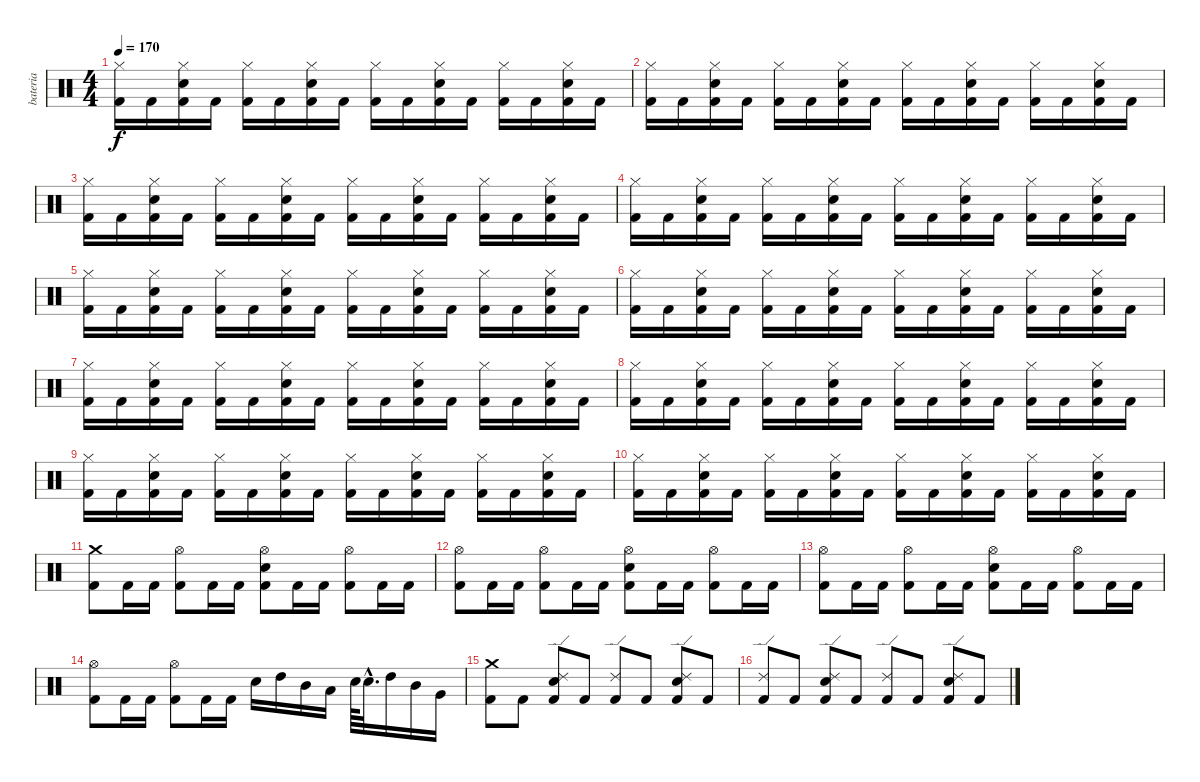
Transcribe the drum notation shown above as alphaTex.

\track ("bateria" "bateria") {instrument percussion}
\staff {score}
\articulation defaults
\ts (4 4)
\tempo 170
\clef neutral
\ks c
("Hi-Hat (closed)" "Kick (hit) 2").16{dy f} "Kick (hit) 2".16 ("Hi-Hat (closed)" "Snare (hit) 2" "Kick (hit) 2").16 "Kick (hit) 2".16 ("Hi-Hat (closed)" "Kick (hit) 2").16 "Kick (hit) 2".16 ("Hi-Hat (closed)" "Snare (hit) 2" "Kick (hit) 2").16 "Kick (hit) 2".16 ("Hi-Hat (closed)" "Kick (hit) 2").16 "Kick (hit) 2".16 ("Hi-Hat (closed)" "Snare (hit) 2" "Kick (hit) 2").16 "Kick (hit) 2".16 ("Hi-Hat (closed)" "Kick (hit) 2").16 "Kick (hit) 2".16 ("Hi-Hat (closed)" "Snare (hit) 2" "Kick (hit) 2").16 "Kick (hit) 2".16 |
("Hi-Hat (closed)" "Kick (hit) 2").16 "Kick (hit) 2".16 ("Hi-Hat (closed)" "Snare (hit) 2" "Kick (hit) 2").16 "Kick (hit) 2".16 ("Hi-Hat (closed)" "Kick (hit) 2").16 "Kick (hit) 2".16 ("Hi-Hat (closed)" "Snare (hit) 2" "Kick (hit) 2").16 "Kick (hit) 2".16 ("Hi-Hat (closed)" "Kick (hit) 2").16 "Kick (hit) 2".16 ("Hi-Hat (closed)" "Snare (hit) 2" "Kick (hit) 2").16 "Kick (hit) 2".16 ("Hi-Hat (closed)" "Kick (hit) 2").16 "Kick (hit) 2".16 ("Hi-Hat (closed)" "Snare (hit) 2" "Kick (hit) 2").16 "Kick (hit) 2".16 |
("Hi-Hat (closed)" "Kick (hit) 2").16 "Kick (hit) 2".16 ("Hi-Hat (closed)" "Snare (hit) 2" "Kick (hit) 2").16 "Kick (hit) 2".16 ("Hi-Hat (closed)" "Kick (hit) 2").16 "Kick (hit) 2".16 ("Hi-Hat (closed)" "Snare (hit) 2" "Kick (hit) 2").16 "Kick (hit) 2".16 ("Hi-Hat (closed)" "Kick (hit) 2").16 "Kick (hit) 2".16 ("Hi-Hat (closed)" "Snare (hit) 2" "Kick (hit) 2").16 "Kick (hit) 2".16 ("Hi-Hat (closed)" "Kick (hit) 2").16 "Kick (hit) 2".16 ("Hi-Hat (closed)" "Snare (hit) 2" "Kick (hit) 2").16 "Kick (hit) 2".16 |
("Hi-Hat (closed)" "Kick (hit) 2").16 "Kick (hit) 2".16 ("Hi-Hat (closed)" "Snare (hit) 2" "Kick (hit) 2").16 "Kick (hit) 2".16 ("Hi-Hat (closed)" "Kick (hit) 2").16 "Kick (hit) 2".16 ("Hi-Hat (closed)" "Snare (hit) 2" "Kick (hit) 2").16 "Kick (hit) 2".16 ("Hi-Hat (closed)" "Kick (hit) 2").16 "Kick (hit) 2".16 ("Hi-Hat (closed)" "Snare (hit) 2" "Kick (hit) 2").16 "Kick (hit) 2".16 ("Hi-Hat (closed)" "Kick (hit) 2").16 "Kick (hit) 2".16 ("Hi-Hat (closed)" "Snare (hit) 2" "Kick (hit) 2").16 "Kick (hit) 2".16 |
("Hi-Hat (closed)" "Kick (hit) 2").16 "Kick (hit) 2".16 ("Hi-Hat (closed)" "Snare (hit) 2" "Kick (hit) 2").16 "Kick (hit) 2".16 ("Hi-Hat (closed)" "Kick (hit) 2").16 "Kick (hit) 2".16 ("Hi-Hat (closed)" "Snare (hit) 2" "Kick (hit) 2").16 "Kick (hit) 2".16 ("Hi-Hat (closed)" "Kick (hit) 2").16 "Kick (hit) 2".16 ("Hi-Hat (closed)" "Snare (hit) 2" "Kick (hit) 2").16 "Kick (hit) 2".16 ("Hi-Hat (closed)" "Kick (hit) 2").16 "Kick (hit) 2".16 ("Hi-Hat (closed)" "Snare (hit) 2" "Kick (hit) 2").16 "Kick (hit) 2".16 |
("Hi-Hat (closed)" "Kick (hit) 2").16 "Kick (hit) 2".16 ("Hi-Hat (closed)" "Snare (hit) 2" "Kick (hit) 2").16 "Kick (hit) 2".16 ("Hi-Hat (closed)" "Kick (hit) 2").16 "Kick (hit) 2".16 ("Hi-Hat (closed)" "Snare (hit) 2" "Kick (hit) 2").16 "Kick (hit) 2".16 ("Hi-Hat (closed)" "Kick (hit) 2").16 "Kick (hit) 2".16 ("Hi-Hat (closed)" "Snare (hit) 2" "Kick (hit) 2").16 "Kick (hit) 2".16 ("Hi-Hat (closed)" "Kick (hit) 2").16 "Kick (hit) 2".16 ("Hi-Hat (closed)" "Snare (hit) 2" "Kick (hit) 2").16 "Kick (hit) 2".16 |
("Hi-Hat (closed)" "Kick (hit) 2").16 "Kick (hit) 2".16 ("Hi-Hat (closed)" "Snare (hit) 2" "Kick (hit) 2").16 "Kick (hit) 2".16 ("Hi-Hat (closed)" "Kick (hit) 2").16 "Kick (hit) 2".16 ("Hi-Hat (closed)" "Snare (hit) 2" "Kick (hit) 2").16 "Kick (hit) 2".16 ("Hi-Hat (closed)" "Kick (hit) 2").16 "Kick (hit) 2".16 ("Hi-Hat (closed)" "Snare (hit) 2" "Kick (hit) 2").16 "Kick (hit) 2".16 ("Hi-Hat (closed)" "Kick (hit) 2").16 "Kick (hit) 2".16 ("Hi-Hat (closed)" "Snare (hit) 2" "Kick (hit) 2").16 "Kick (hit) 2".16 |
("Hi-Hat (closed)" "Kick (hit) 2").16 "Kick (hit) 2".16 ("Hi-Hat (closed)" "Snare (hit) 2" "Kick (hit) 2").16 "Kick (hit) 2".16 ("Hi-Hat (closed)" "Kick (hit) 2").16 "Kick (hit) 2".16 ("Hi-Hat (closed)" "Snare (hit) 2" "Kick (hit) 2").16 "Kick (hit) 2".16 ("Hi-Hat (closed)" "Kick (hit) 2").16 "Kick (hit) 2".16 ("Hi-Hat (closed)" "Snare (hit) 2" "Kick (hit) 2").16 "Kick (hit) 2".16 ("Hi-Hat (closed)" "Kick (hit) 2").16 "Kick (hit) 2".16 ("Hi-Hat (closed)" "Snare (hit) 2" "Kick (hit) 2").16 "Kick (hit) 2".16 |
("Hi-Hat (closed)" "Kick (hit) 2").16 "Kick (hit) 2".16 ("Hi-Hat (closed)" "Snare (hit) 2" "Kick (hit) 2").16 "Kick (hit) 2".16 ("Hi-Hat (closed)" "Kick (hit) 2").16 "Kick (hit) 2".16 ("Hi-Hat (closed)" "Snare (hit) 2" "Kick (hit) 2").16 "Kick (hit) 2".16 ("Hi-Hat (closed)" "Kick (hit) 2").16 "Kick (hit) 2".16 ("Hi-Hat (closed)" "Snare (hit) 2" "Kick (hit) 2").16 "Kick (hit) 2".16 ("Hi-Hat (closed)" "Kick (hit) 2").16 "Kick (hit) 2".16 ("Hi-Hat (closed)" "Snare (hit) 2" "Kick (hit) 2").16 "Kick (hit) 2".16 |
("Hi-Hat (closed)" "Kick (hit) 2").16 "Kick (hit) 2".16 ("Hi-Hat (closed)" "Snare (hit) 2" "Kick (hit) 2").16 "Kick (hit) 2".16 ("Hi-Hat (closed)" "Kick (hit) 2").16 "Kick (hit) 2".16 ("Hi-Hat (closed)" "Snare (hit) 2" "Kick (hit) 2").16 "Kick (hit) 2".16 ("Hi-Hat (closed)" "Kick (hit) 2").16 "Kick (hit) 2".16 ("Hi-Hat (closed)" "Snare (hit) 2" "Kick (hit) 2").16 "Kick (hit) 2".16 ("Hi-Hat (closed)" "Kick (hit) 2").16 "Kick (hit) 2".16 ("Hi-Hat (closed)" "Snare (hit) 2" "Kick (hit) 2").16 "Kick (hit) 2".16 |
("Crash medium (hit)" "Kick (hit) 2").8 "Kick (hit) 2".16 "Kick (hit) 2".16 ("Hi-Hat (open)" "Kick (hit) 2").8 "Kick (hit) 2".16 "Kick (hit) 2".16 ("Hi-Hat (open)" "Snare (hit) 2" "Kick (hit) 2").8 "Kick (hit) 2".16 "Kick (hit) 2".16 ("Hi-Hat (open)" "Kick (hit) 2").8 "Kick (hit) 2".16 "Kick (hit) 2".16 |
("Hi-Hat (open)" "Kick (hit) 2").8 "Kick (hit) 2".16 "Kick (hit) 2".16 ("Hi-Hat (open)" "Kick (hit) 2").8 "Kick (hit) 2".16 "Kick (hit) 2".16 ("Hi-Hat (open)" "Snare (hit) 2" "Kick (hit) 2").8 "Kick (hit) 2".16 "Kick (hit) 2".16 ("Hi-Hat (open)" "Kick (hit) 2").8 "Kick (hit) 2".16 "Kick (hit) 2".16 |
("Hi-Hat (open)" "Kick (hit) 2").8 "Kick (hit) 2".16 "Kick (hit) 2".16 ("Hi-Hat (open)" "Kick (hit) 2").8 "Kick (hit) 2".16 "Kick (hit) 2".16 ("Hi-Hat (open)" "Snare (hit) 2" "Kick (hit) 2").8 "Kick (hit) 2".16 "Kick (hit) 2".16 ("Hi-Hat (open)" "Kick (hit) 2").8 "Kick (hit) 2".16 "Kick (hit) 2".16 |
("Hi-Hat (open)" "Kick (hit) 2").8 "Kick (hit) 2".16 "Kick (hit) 2".16 ("Hi-Hat (open)" "Kick (hit) 2").8 "Kick (hit) 2".16 "Kick (hit) 2".16 "Snare (hit) 2".16 "High Tom (hit)".16 "Mid Tom (hit)".16 "Low Tom (hit)".16 "Snare (hit) 2".64 "Snare (hit) 2"{hac}.32{d} "High Tom (hit)".16 "Mid Tom (hit)".16 "Very Low Tom (hit)".16 |
("Crash medium (hit)" "Kick (hit) 2").8 "Kick (hit) 2".8 ("Ride (edge) 2" "Snare (hit) 2" "Kick (hit) 2").8 "Kick (hit) 2".8 ("Ride (edge) 2" "Kick (hit) 2").8 "Kick (hit) 2".8 ("Ride (edge) 2" "Snare (hit) 2" "Kick (hit) 2").8 "Kick (hit) 2".8 |
("Ride (edge) 2" "Kick (hit) 2").8 "Kick (hit) 2".8 ("Ride (edge) 2" "Snare (hit) 2" "Kick (hit) 2").8 "Kick (hit) 2".8 ("Ride (edge) 2" "Kick (hit) 2").8 "Kick (hit) 2".8 ("Ride (edge) 2" "Snare (hit) 2" "Kick (hit) 2").8 "Kick (hit) 2".8
